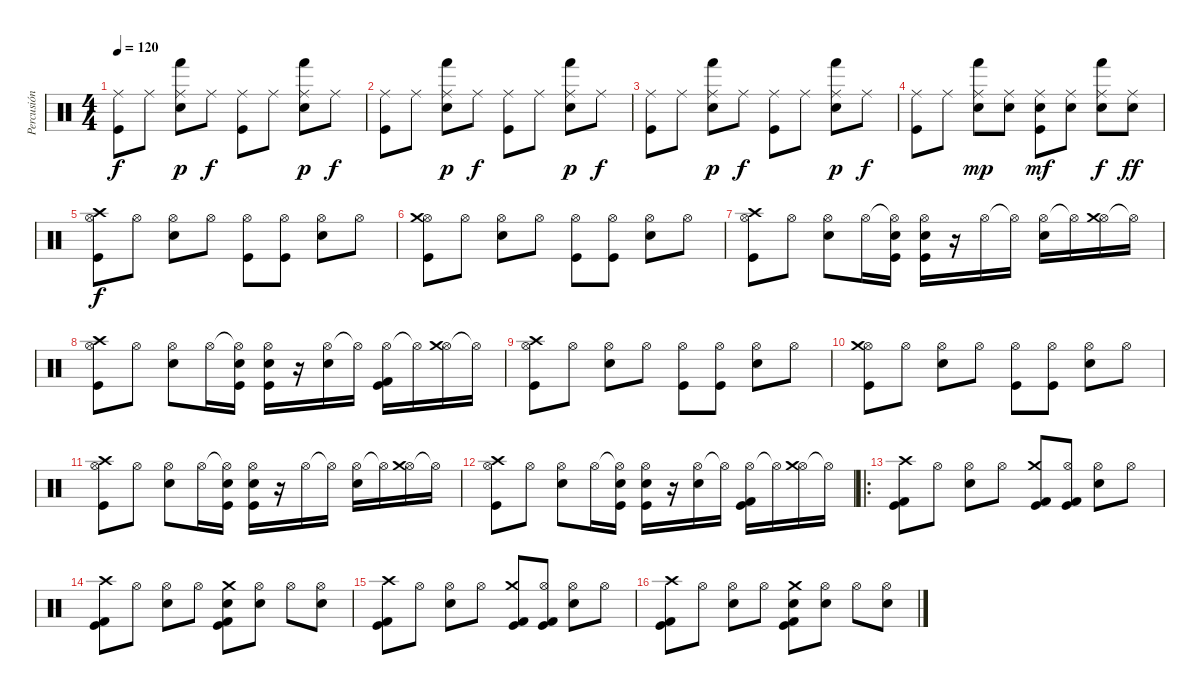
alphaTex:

\track ("Percusión" "Percusión") {instrument percussion}
\staff {score}
\articulation defaults
\ts (4 4)
\tempo 120
\clef neutral
\ks c
("Ride (middle)" "Kick (hit)").8{dy f} "Ride (middle)".8 ("Ride (middle)" "Hand (hit)" "Electric Snare (hit)").8{dy p} "Ride (middle)".8{dy f} ("Ride (middle)" "Kick (hit)").8 "Ride (middle)".8 ("Ride (middle)" "Hand (hit)" "Electric Snare (hit)").8{dy p} "Ride (middle)".8{dy f} |
("Ride (middle)" "Kick (hit)").8 "Ride (middle)".8 ("Ride (middle)" "Hand (hit)" "Electric Snare (hit)").8{dy p} "Ride (middle)".8{dy f} ("Ride (middle)" "Kick (hit)").8 "Ride (middle)".8 ("Ride (middle)" "Hand (hit)" "Electric Snare (hit)").8{dy p} "Ride (middle)".8{dy f} |
("Ride (middle)" "Kick (hit)").8 "Ride (middle)".8 ("Ride (middle)" "Hand (hit)" "Electric Snare (hit)").8{dy p} "Ride (middle)".8{dy f} ("Ride (middle)" "Kick (hit)").8 "Ride (middle)".8 ("Ride (middle)" "Hand (hit)" "Electric Snare (hit)").8{dy p} "Ride (middle)".8{dy f} |
("Ride (middle)" "Kick (hit)").8 "Ride (middle)".8 ("Ride (middle)" "Hand (hit)" "Snare (hit) 2").8{dy mp} ("Ride (middle)" "Snare (hit) 2").8 ("Ride (middle)" "Snare (hit) 2" "Kick (hit)").8{dy mf} ("Ride (middle)" "Snare (hit) 2").8 ("Ride (middle)" "Hand (hit)" "Snare (hit) 2").8{dy f} ("Ride (middle)" "Snare (hit) 2").8{dy ff} |
("Hi-Hat (open)" "Crash high (hit)" "Kick (hit)").8{dy f} "Hi-Hat (open)".8 ("Hi-Hat (open)" "Snare (hit) 2").8 "Hi-Hat (open)".8 ("Hi-Hat (open)" "Kick (hit)").8 ("Hi-Hat (open)" "Kick (hit)").8 ("Hi-Hat (open)" "Snare (hit) 2").8 "Hi-Hat (open)".8 |
("Hi-Hat (open)" "Crash medium (hit)" "Kick (hit)").8 "Hi-Hat (open)".8 ("Hi-Hat (open)" "Snare (hit) 2").8 "Hi-Hat (open)".8 ("Hi-Hat (open)" "Kick (hit)").8 ("Hi-Hat (open)" "Kick (hit)").8 ("Hi-Hat (open)" "Snare (hit) 2").8 "Hi-Hat (open)".8 |
("Hi-Hat (open)" "Crash high (hit)" "Kick (hit)").8 "Hi-Hat (open)".8 ("Hi-Hat (open)" "Snare (hit) 2").8 "Hi-Hat (open)".16 ("Hi-Hat (open)"{t} "Snare (hit) 2" "Kick (hit)").16 ("Hi-Hat (open)" "Snare (hit) 2" "Kick (hit)").16 r.16 "Hi-Hat (open)".16 "Hi-Hat (open)"{t}.16 ("Hi-Hat (open)" "Snare (hit) 2").16 "Hi-Hat (open)"{t}.16 ("Hi-Hat (open)" "Crash medium (hit)").16 "Hi-Hat (open)"{t}.16 |
("Hi-Hat (open)" "Crash high (hit)" "Kick (hit)").8 "Hi-Hat (open)".8 ("Hi-Hat (open)" "Snare (hit) 2").8 "Hi-Hat (open)".16 ("Hi-Hat (open)"{t} "Snare (hit) 2" "Kick (hit)").16 ("Hi-Hat (open)" "Snare (hit) 2" "Kick (hit)").16 r.16 ("Hi-Hat (open)" "Snare (hit) 2").16 "Hi-Hat (open)"{t}.16 ("Hi-Hat (open)" "Kick (hit)" "Kick (hit) 2").16 "Hi-Hat (open)"{t}.16 ("Hi-Hat (open)" "Crash medium (hit)").16 "Hi-Hat (open)"{t}.16 |
("Hi-Hat (open)" "Crash high (hit)" "Kick (hit)").8 "Hi-Hat (open)".8 ("Hi-Hat (open)" "Snare (hit) 2").8 "Hi-Hat (open)".8 ("Hi-Hat (open)" "Kick (hit)").8 ("Hi-Hat (open)" "Kick (hit)").8 ("Hi-Hat (open)" "Snare (hit) 2").8 "Hi-Hat (open)".8 |
("Hi-Hat (open)" "Crash medium (hit)" "Kick (hit)").8 "Hi-Hat (open)".8 ("Hi-Hat (open)" "Snare (hit) 2").8 "Hi-Hat (open)".8 ("Hi-Hat (open)" "Kick (hit)").8 ("Hi-Hat (open)" "Kick (hit)").8 ("Hi-Hat (open)" "Snare (hit) 2").8 "Hi-Hat (open)".8 |
("Hi-Hat (open)" "Crash high (hit)" "Kick (hit)").8 "Hi-Hat (open)".8 ("Hi-Hat (open)" "Snare (hit) 2").8 "Hi-Hat (open)".16 ("Hi-Hat (open)"{t} "Snare (hit) 2" "Kick (hit)").16 ("Hi-Hat (open)" "Snare (hit) 2" "Kick (hit)").16 r.16 "Hi-Hat (open)".16 "Hi-Hat (open)"{t}.16 ("Hi-Hat (open)" "Snare (hit) 2").16 "Hi-Hat (open)"{t}.16 ("Hi-Hat (open)" "Crash medium (hit)").16 "Hi-Hat (open)"{t}.16 |
("Hi-Hat (open)" "Crash high (hit)" "Kick (hit)").8 "Hi-Hat (open)".8 ("Hi-Hat (open)" "Snare (hit) 2").8 "Hi-Hat (open)".16 ("Hi-Hat (open)"{t} "Snare (hit) 2" "Kick (hit)").16 ("Hi-Hat (open)" "Snare (hit) 2" "Kick (hit)").16 r.16 ("Hi-Hat (open)" "Snare (hit) 2").16 "Hi-Hat (open)"{t}.16 ("Hi-Hat (open)" "Kick (hit)" "Kick (hit) 2").16 "Hi-Hat (open)"{t}.16 ("Hi-Hat (open)" "Crash medium (hit)").16 "Hi-Hat (open)"{t}.16 |
\ro
("Crash high (hit)" "Kick (hit) 2" "Kick (hit)").8 "Hi-Hat (open)".8 ("Hi-Hat (open)" "Snare (hit) 2").8 "Hi-Hat (open)".8 ("Crash medium (hit)" "Kick (hit) 2" "Kick (hit)").8 ("Hi-Hat (open)" "Kick (hit) 2" "Kick (hit)").8 ("Hi-Hat (open)" "Snare (hit) 2").8 "Hi-Hat (open)".8 |
("Crash high (hit)" "Kick (hit) 2" "Kick (hit)").8 "Hi-Hat (open)".8 ("Hi-Hat (open)" "Snare (hit) 2").8 "Hi-Hat (open)".8 ("Crash medium (hit)" "Snare (hit) 2" "Kick (hit) 2" "Kick (hit)").8 ("Hi-Hat (open)" "Snare (hit) 2").8 "Hi-Hat (open)".8 ("Hi-Hat (open)" "Snare (hit) 2").8 |
("Crash high (hit)" "Kick (hit) 2" "Kick (hit)").8 "Hi-Hat (open)".8 ("Hi-Hat (open)" "Snare (hit) 2").8 "Hi-Hat (open)".8 ("Crash medium (hit)" "Kick (hit) 2" "Kick (hit)").8 ("Hi-Hat (open)" "Kick (hit) 2" "Kick (hit)").8 ("Hi-Hat (open)" "Snare (hit) 2").8 "Hi-Hat (open)".8 |
("Crash high (hit)" "Kick (hit) 2" "Kick (hit)").8 "Hi-Hat (open)".8 ("Hi-Hat (open)" "Snare (hit) 2").8 "Hi-Hat (open)".8 ("Crash medium (hit)" "Snare (hit) 2" "Kick (hit) 2" "Kick (hit)").8 ("Hi-Hat (open)" "Snare (hit) 2").8 "Hi-Hat (open)".8 ("Hi-Hat (open)" "Snare (hit) 2").8
